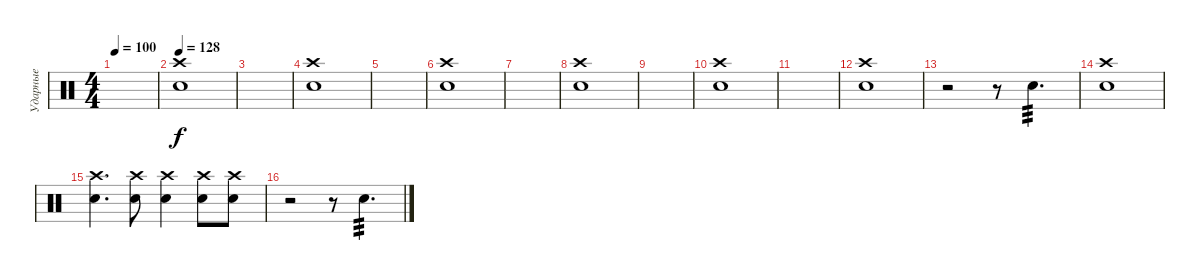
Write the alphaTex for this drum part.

\track ("Ударные" "Ударные") {instrument percussion}
\staff {score}
\articulation defaults
\ts (4 4)
\tempo 100
\clef neutral
\ks c
|
\tempo 128
("Crash high (hit)" "Electric Snare (hit)").1 |
|
("Crash high (hit)" "Electric Snare (hit)").1 |
|
("Crash high (hit)" "Electric Snare (hit)").1 |
|
("Crash high (hit)" "Electric Snare (hit)").1 |
|
("Crash high (hit)" "Electric Snare (hit)").1 |
|
("Crash high (hit)" "Electric Snare (hit)").1 |
r.2 r.8 "Electric Snare (hit)".4{d tp 3} |
("Crash high (hit)" "Electric Snare (hit)").1 |
("Crash high (hit)" "Electric Snare (hit)").4{d} ("Crash high (hit)" "Electric Snare (hit)").8 ("Crash high (hit)" "Electric Snare (hit)").4 ("Crash high (hit)" "Electric Snare (hit)").8 ("Crash high (hit)" "Electric Snare (hit)").8 |
r.2 r.8 "Electric Snare (hit)".4{d tp 3}
